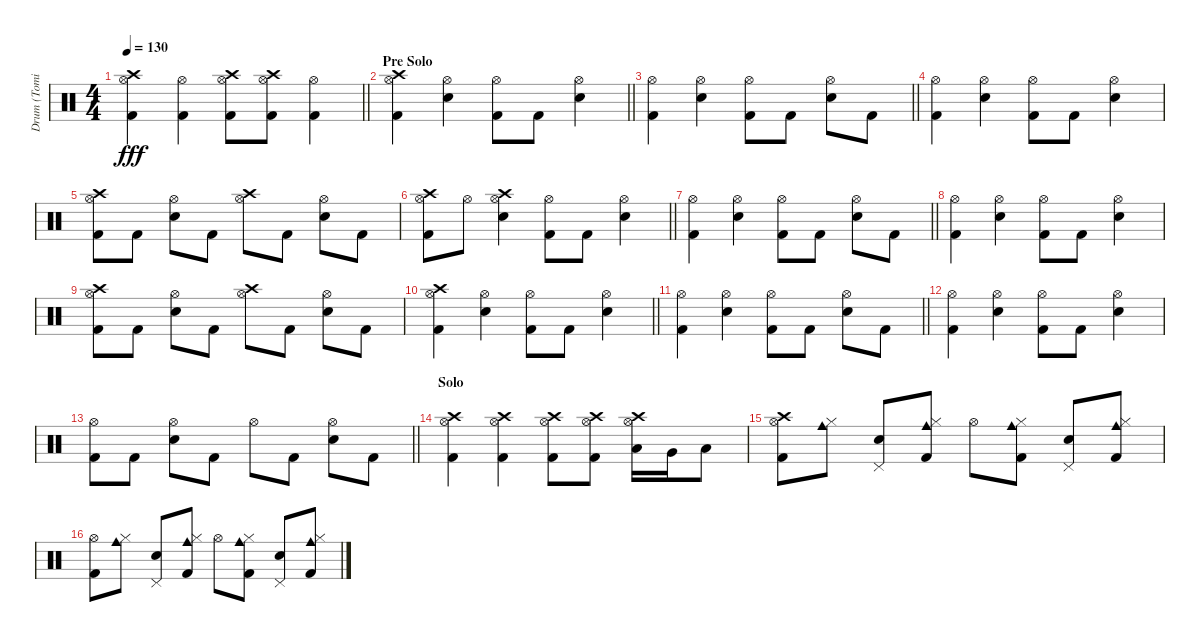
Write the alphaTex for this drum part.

\track ("Drum (Tomi)" "Drum (Tomi") {instrument percussion}
\staff {score}
\articulation defaults
\ts (4 4)
\tempo 130
\clef neutral
\barLineRight lightlight
\ks c
("Hi-Hat (open)" "Crash high (hit)" "Kick (hit) 2").4{dy fff} ("Hi-Hat (open)" "Kick (hit) 2").4 ("Hi-Hat (open)" "Crash high (hit)" "Kick (hit) 2").8 ("Hi-Hat (open)" "Crash high (hit)" "Kick (hit) 2").8 ("Hi-Hat (open)" "Kick (hit) 2").4 |
\section ("" "Pre Solo")
\barLineRight lightlight
("Hi-Hat (open)" "Crash high (hit)" "Kick (hit) 2").4 ("Hi-Hat (open)" "Electric Snare (hit)").4 ("Hi-Hat (open)" "Kick (hit) 2").8 "Kick (hit) 2".8 ("Hi-Hat (open)" "Electric Snare (hit)").4 |
\barLineRight lightlight
("Hi-Hat (open)" "Kick (hit) 2").4 ("Hi-Hat (open)" "Electric Snare (hit)").4 ("Kick (hit) 2" "Hi-Hat (open)").8 "Kick (hit) 2".8 ("Hi-Hat (open)" "Electric Snare (hit)").8 "Kick (hit) 2".8 |
("Kick (hit) 2" "Hi-Hat (open)").4 ("Hi-Hat (open)" "Electric Snare (hit)").4 ("Hi-Hat (open)" "Kick (hit) 2").8 "Kick (hit) 2".8 ("Hi-Hat (open)" "Electric Snare (hit)").4 |
("Crash high (hit)" "Hi-Hat (open)" "Kick (hit) 2").8 "Kick (hit) 2".8 ("Hi-Hat (open)" "Electric Snare (hit)").8 "Kick (hit) 2".8 ("Hi-Hat (open)" "Crash high (hit)").8 "Kick (hit) 2".8 ("Hi-Hat (open)" "Electric Snare (hit)").8 "Kick (hit) 2".8 |
\barLineRight lightlight
("Crash high (hit)" "Hi-Hat (open)" "Kick (hit) 2").8 "Hi-Hat (open)".8 ("Hi-Hat (open)" "Crash high (hit)" "Electric Snare (hit)").4 ("Hi-Hat (open)" "Kick (hit) 2").8 "Kick (hit) 2".8 ("Hi-Hat (open)" "Electric Snare (hit)").4 |
\barLineRight lightlight
("Hi-Hat (open)" "Kick (hit) 2").4 ("Hi-Hat (open)" "Electric Snare (hit)").4 ("Hi-Hat (open)" "Kick (hit) 2").8 "Kick (hit) 2".8 ("Hi-Hat (open)" "Electric Snare (hit)").8 "Kick (hit) 2".8 |
("Kick (hit) 2" "Hi-Hat (open)").4 ("Hi-Hat (open)" "Electric Snare (hit)").4 ("Hi-Hat (open)" "Kick (hit) 2").8 "Kick (hit) 2".8 ("Hi-Hat (open)" "Electric Snare (hit)").4 |
("Crash high (hit)" "Hi-Hat (open)" "Kick (hit) 2").8 "Kick (hit) 2".8 ("Hi-Hat (open)" "Electric Snare (hit)").8 "Kick (hit) 2".8 ("Crash high (hit)" "Hi-Hat (open)").8 "Kick (hit) 2".8 ("Hi-Hat (open)" "Electric Snare (hit)").8 "Kick (hit) 2".8 |
\barLineRight lightlight
("Crash high (hit)" "Hi-Hat (open)" "Kick (hit) 2").4 ("Hi-Hat (open)" "Electric Snare (hit)").4 ("Hi-Hat (open)" "Kick (hit) 2").8 "Kick (hit) 2".8 ("Hi-Hat (open)" "Electric Snare (hit)").4 |
\barLineRight lightlight
("Hi-Hat (open)" "Kick (hit) 2").4 ("Hi-Hat (open)" "Electric Snare (hit)").4 ("Hi-Hat (open)" "Kick (hit) 2").8 "Kick (hit) 2".8 ("Hi-Hat (open)" "Electric Snare (hit)").8 "Kick (hit) 2".8 |
("Hi-Hat (open)" "Kick (hit) 2").4 ("Hi-Hat (open)" "Electric Snare (hit)").4 ("Hi-Hat (open)" "Kick (hit) 2").8 "Kick (hit) 2".8 ("Hi-Hat (open)" "Electric Snare (hit)").4 |
\barLineRight lightlight
("Hi-Hat (open)" "Kick (hit) 2").8 "Kick (hit) 2".8 ("Hi-Hat (open)" "Electric Snare (hit)").8 "Kick (hit) 2".8 "Hi-Hat (open)".8 "Kick (hit) 2".8 ("Hi-Hat (open)" "Electric Snare (hit)").8 "Kick (hit) 2".8 |
\section ("" "Solo")
("Crash high (hit)" "Hi-Hat (open)" "Kick (hit) 2").4 ("Hi-Hat (open)" "Crash high (hit)" "Kick (hit) 2").4 ("Hi-Hat (open)" "Crash high (hit)" "Kick (hit) 2").8 ("Hi-Hat (open)" "Crash high (hit)" "Kick (hit) 2").8 ("Hi-Hat (open)" "Crash high (hit)" "Low Tom (hit)").16 "Very Low Tom (hit)".16 "Low Floor Tom (hit)".8 |
("Hi-Hat (open)" "Crash high (hit)" "Kick (hit) 2").8 ("Hi-Hat (closed)" "Cowbell medium (hit)").8 ("Pedal Hi-Hat (hit)" "Electric Snare (hit)").8 ("Hi-Hat (closed)" "Kick (hit) 2" "Cowbell medium (hit)").8 "Hi-Hat (open)".8 ("Hi-Hat (closed)" "Cowbell medium (hit)" "Kick (hit) 2").8 ("Pedal Hi-Hat (hit)" "Electric Snare (hit)").8 ("Cowbell medium (hit)" "Kick (hit) 2" "Hi-Hat (closed)").8 |
("Kick (hit) 2" "Hi-Hat (open)").8 ("Hi-Hat (closed)" "Cowbell medium (hit)").8 ("Pedal Hi-Hat (hit)" "Electric Snare (hit)").8 ("Kick (hit) 2" "Cowbell medium (hit)" "Hi-Hat (closed)").8 "Hi-Hat (open)".8 ("Cowbell medium (hit)" "Kick (hit) 2" "Hi-Hat (closed)").8 ("Pedal Hi-Hat (hit)" "Electric Snare (hit)").8 ("Cowbell medium (hit)" "Hi-Hat (closed)" "Kick (hit) 2").8
